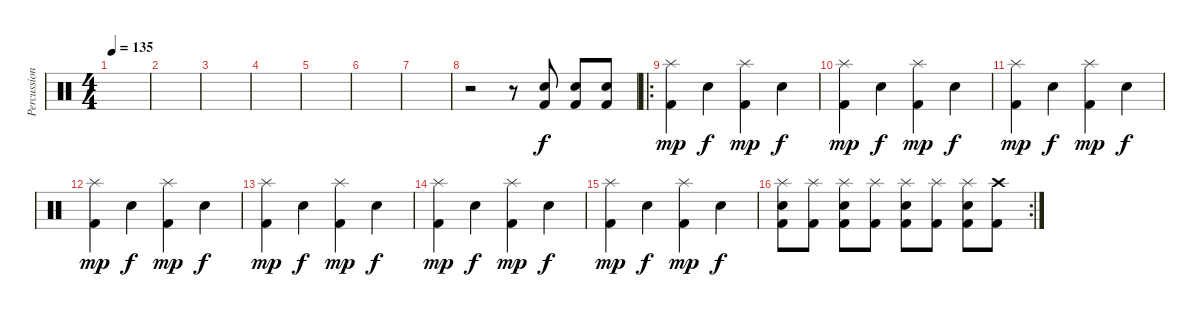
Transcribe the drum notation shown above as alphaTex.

\track ("Percussion" "Percussion") {instrument percussion}
\staff {score}
\articulation defaults
\ts (4 4)
\tempo 135
\clef neutral
\ks c
|
|
|
|
|
|
|
r.2 r.8 ("Snare (hit) 2" "Kick (hit) 2").8 ("Snare (hit) 2" "Kick (hit) 2").8 ("Snare (hit) 2" "Kick (hit) 2").8 |
\ro
("Splash (hit)" "Kick (hit) 2").4{dy mp} "Snare (hit) 2".4{dy f} ("Splash (hit)" "Kick (hit) 2").4{dy mp} "Snare (hit) 2".4{dy f} |
("Splash (hit)" "Kick (hit) 2").4{dy mp} "Snare (hit) 2".4{dy f} ("Splash (hit)" "Kick (hit) 2").4{dy mp} "Snare (hit) 2".4{dy f} |
("Splash (hit)" "Kick (hit) 2").4{dy mp} "Snare (hit) 2".4{dy f} ("Splash (hit)" "Kick (hit) 2").4{dy mp} "Snare (hit) 2".4{dy f} |
("Splash (hit)" "Kick (hit) 2").4{dy mp} "Snare (hit) 2".4{dy f} ("Splash (hit)" "Kick (hit) 2").4{dy mp} "Snare (hit) 2".4{dy f} |
("Splash (hit)" "Kick (hit) 2").4{dy mp} "Snare (hit) 2".4{dy f} ("Splash (hit)" "Kick (hit) 2").4{dy mp} "Snare (hit) 2".4{dy f} |
("Splash (hit)" "Kick (hit) 2").4{dy mp} "Snare (hit) 2".4{dy f} ("Splash (hit)" "Kick (hit) 2").4{dy mp} "Snare (hit) 2".4{dy f} |
("Splash (hit)" "Kick (hit) 2").4{dy mp} "Snare (hit) 2".4{dy f} ("Splash (hit)" "Kick (hit) 2").4{dy mp} "Snare (hit) 2".4{dy f} |
\rc 2
("Splash (hit)" "Snare (hit) 2" "Kick (hit) 2").8 ("Splash (hit)" "Kick (hit) 2").8 ("Splash (hit)" "Snare (hit) 2" "Kick (hit) 2").8 ("Splash (hit)" "Kick (hit) 2").8 ("Splash (hit)" "Snare (hit) 2" "Kick (hit) 2").8 ("Splash (hit)" "Kick (hit) 2").8 ("Splash (hit)" "Snare (hit) 2" "Kick (hit) 2").8 ("Crash high (hit)" "Kick (hit) 2").8
